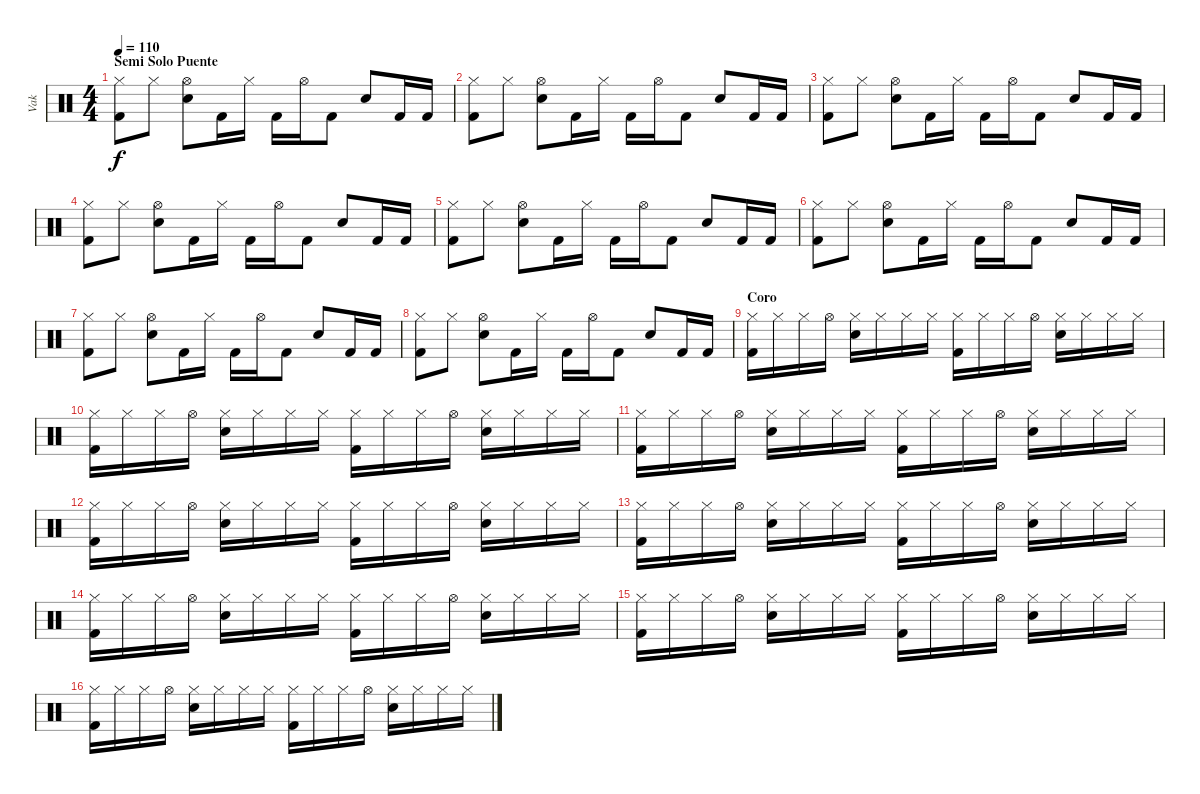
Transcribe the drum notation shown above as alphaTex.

\track ("Vak" "Vak") {instrument percussion}
\staff {score}
\articulation defaults
\ts (4 4)
\section ("" "Semi Solo Puente")
\tempo 110
\clef neutral
\ks c
("Kick (hit) 2" "Hi-Hat (closed)").8{dy f} "Hi-Hat (closed)".8 ("Snare (hit) 2" "Hi-Hat (open)").8 "Kick (hit) 2".16 "Hi-Hat (closed)".16 "Kick (hit) 2".16 "Hi-Hat (open)".16 "Kick (hit) 2".8 "Snare (hit) 2".8 "Kick (hit) 2".16 "Kick (hit) 2".16 |
("Kick (hit) 2" "Hi-Hat (closed)").8 "Hi-Hat (closed)".8 ("Snare (hit) 2" "Hi-Hat (open)").8 "Kick (hit) 2".16 "Hi-Hat (closed)".16 "Kick (hit) 2".16 "Hi-Hat (open)".16 "Kick (hit) 2".8 "Snare (hit) 2".8 "Kick (hit) 2".16 "Kick (hit) 2".16 |
("Kick (hit) 2" "Hi-Hat (closed)").8 "Hi-Hat (closed)".8 ("Snare (hit) 2" "Hi-Hat (open)").8 "Kick (hit) 2".16 "Hi-Hat (closed)".16 "Kick (hit) 2".16 "Hi-Hat (open)".16 "Kick (hit) 2".8 "Snare (hit) 2".8 "Kick (hit) 2".16 "Kick (hit) 2".16 |
("Kick (hit) 2" "Hi-Hat (closed)").8 "Hi-Hat (closed)".8 ("Snare (hit) 2" "Hi-Hat (open)").8 "Kick (hit) 2".16 "Hi-Hat (closed)".16 "Kick (hit) 2".16 "Hi-Hat (open)".16 "Kick (hit) 2".8 "Snare (hit) 2".8 "Kick (hit) 2".16 "Kick (hit) 2".16 |
("Kick (hit) 2" "Hi-Hat (closed)").8 "Hi-Hat (closed)".8 ("Snare (hit) 2" "Hi-Hat (open)").8 "Kick (hit) 2".16 "Hi-Hat (closed)".16 "Kick (hit) 2".16 "Hi-Hat (open)".16 "Kick (hit) 2".8 "Snare (hit) 2".8 "Kick (hit) 2".16 "Kick (hit) 2".16 |
("Kick (hit) 2" "Hi-Hat (closed)").8 "Hi-Hat (closed)".8 ("Snare (hit) 2" "Hi-Hat (open)").8 "Kick (hit) 2".16 "Hi-Hat (closed)".16 "Kick (hit) 2".16 "Hi-Hat (open)".16 "Kick (hit) 2".8 "Snare (hit) 2".8 "Kick (hit) 2".16 "Kick (hit) 2".16 |
("Kick (hit) 2" "Hi-Hat (closed)").8 "Hi-Hat (closed)".8 ("Snare (hit) 2" "Hi-Hat (open)").8 "Kick (hit) 2".16 "Hi-Hat (closed)".16 "Kick (hit) 2".16 "Hi-Hat (open)".16 "Kick (hit) 2".8 "Snare (hit) 2".8 "Kick (hit) 2".16 "Kick (hit) 2".16 |
("Kick (hit) 2" "Hi-Hat (closed)").8 "Hi-Hat (closed)".8 ("Snare (hit) 2" "Hi-Hat (open)").8 "Kick (hit) 2".16 "Hi-Hat (closed)".16 "Kick (hit) 2".16 "Hi-Hat (open)".16 "Kick (hit) 2".8 "Snare (hit) 2".8 "Kick (hit) 2".16 "Kick (hit) 2".16 |
\section ("" "Coro")
("Hi-Hat (closed)" "Kick (hit) 2").16 "Hi-Hat (closed)".16 "Hi-Hat (closed)".16 "Hi-Hat (open)".16 ("Hi-Hat (closed)" "Snare (hit) 2").16 "Hi-Hat (closed)".16 "Hi-Hat (closed)".16 "Hi-Hat (closed)".16 ("Hi-Hat (closed)" "Kick (hit) 2").16 "Hi-Hat (closed)".16 "Hi-Hat (closed)".16 "Hi-Hat (open)".16 ("Hi-Hat (closed)" "Snare (hit) 2").16 "Hi-Hat (closed)".16 "Hi-Hat (closed)".16 "Hi-Hat (closed)".16 |
("Hi-Hat (closed)" "Kick (hit) 2").16 "Hi-Hat (closed)".16 "Hi-Hat (closed)".16 "Hi-Hat (open)".16 ("Hi-Hat (closed)" "Snare (hit) 2").16 "Hi-Hat (closed)".16 "Hi-Hat (closed)".16 "Hi-Hat (closed)".16 ("Hi-Hat (closed)" "Kick (hit) 2").16 "Hi-Hat (closed)".16 "Hi-Hat (closed)".16 "Hi-Hat (open)".16 ("Hi-Hat (closed)" "Snare (hit) 2").16 "Hi-Hat (closed)".16 "Hi-Hat (closed)".16 "Hi-Hat (closed)".16 |
("Hi-Hat (closed)" "Kick (hit) 2").16 "Hi-Hat (closed)".16 "Hi-Hat (closed)".16 "Hi-Hat (open)".16 ("Hi-Hat (closed)" "Snare (hit) 2").16 "Hi-Hat (closed)".16 "Hi-Hat (closed)".16 "Hi-Hat (closed)".16 ("Hi-Hat (closed)" "Kick (hit) 2").16 "Hi-Hat (closed)".16 "Hi-Hat (closed)".16 "Hi-Hat (open)".16 ("Hi-Hat (closed)" "Snare (hit) 2").16 "Hi-Hat (closed)".16 "Hi-Hat (closed)".16 "Hi-Hat (closed)".16 |
("Hi-Hat (closed)" "Kick (hit) 2").16 "Hi-Hat (closed)".16 "Hi-Hat (closed)".16 "Hi-Hat (open)".16 ("Hi-Hat (closed)" "Snare (hit) 2").16 "Hi-Hat (closed)".16 "Hi-Hat (closed)".16 "Hi-Hat (closed)".16 ("Hi-Hat (closed)" "Kick (hit) 2").16 "Hi-Hat (closed)".16 "Hi-Hat (closed)".16 "Hi-Hat (open)".16 ("Hi-Hat (closed)" "Snare (hit) 2").16 "Hi-Hat (closed)".16 "Hi-Hat (closed)".16 "Hi-Hat (closed)".16 |
("Hi-Hat (closed)" "Kick (hit) 2").16 "Hi-Hat (closed)".16 "Hi-Hat (closed)".16 "Hi-Hat (open)".16 ("Hi-Hat (closed)" "Snare (hit) 2").16 "Hi-Hat (closed)".16 "Hi-Hat (closed)".16 "Hi-Hat (closed)".16 ("Hi-Hat (closed)" "Kick (hit) 2").16 "Hi-Hat (closed)".16 "Hi-Hat (closed)".16 "Hi-Hat (open)".16 ("Hi-Hat (closed)" "Snare (hit) 2").16 "Hi-Hat (closed)".16 "Hi-Hat (closed)".16 "Hi-Hat (closed)".16 |
("Hi-Hat (closed)" "Kick (hit) 2").16 "Hi-Hat (closed)".16 "Hi-Hat (closed)".16 "Hi-Hat (open)".16 ("Hi-Hat (closed)" "Snare (hit) 2").16 "Hi-Hat (closed)".16 "Hi-Hat (closed)".16 "Hi-Hat (closed)".16 ("Hi-Hat (closed)" "Kick (hit) 2").16 "Hi-Hat (closed)".16 "Hi-Hat (closed)".16 "Hi-Hat (open)".16 ("Hi-Hat (closed)" "Snare (hit) 2").16 "Hi-Hat (closed)".16 "Hi-Hat (closed)".16 "Hi-Hat (closed)".16 |
("Hi-Hat (closed)" "Kick (hit) 2").16 "Hi-Hat (closed)".16 "Hi-Hat (closed)".16 "Hi-Hat (open)".16 ("Hi-Hat (closed)" "Snare (hit) 2").16 "Hi-Hat (closed)".16 "Hi-Hat (closed)".16 "Hi-Hat (closed)".16 ("Hi-Hat (closed)" "Kick (hit) 2").16 "Hi-Hat (closed)".16 "Hi-Hat (closed)".16 "Hi-Hat (open)".16 ("Hi-Hat (closed)" "Snare (hit) 2").16 "Hi-Hat (closed)".16 "Hi-Hat (closed)".16 "Hi-Hat (closed)".16 |
("Hi-Hat (closed)" "Kick (hit) 2").16 "Hi-Hat (closed)".16 "Hi-Hat (closed)".16 "Hi-Hat (open)".16 ("Hi-Hat (closed)" "Snare (hit) 2").16 "Hi-Hat (closed)".16 "Hi-Hat (closed)".16 "Hi-Hat (closed)".16 ("Hi-Hat (closed)" "Kick (hit) 2").16 "Hi-Hat (closed)".16 "Hi-Hat (closed)".16 "Hi-Hat (open)".16 ("Hi-Hat (closed)" "Snare (hit) 2").16 "Hi-Hat (closed)".16 "Hi-Hat (closed)".16 "Hi-Hat (closed)".16
